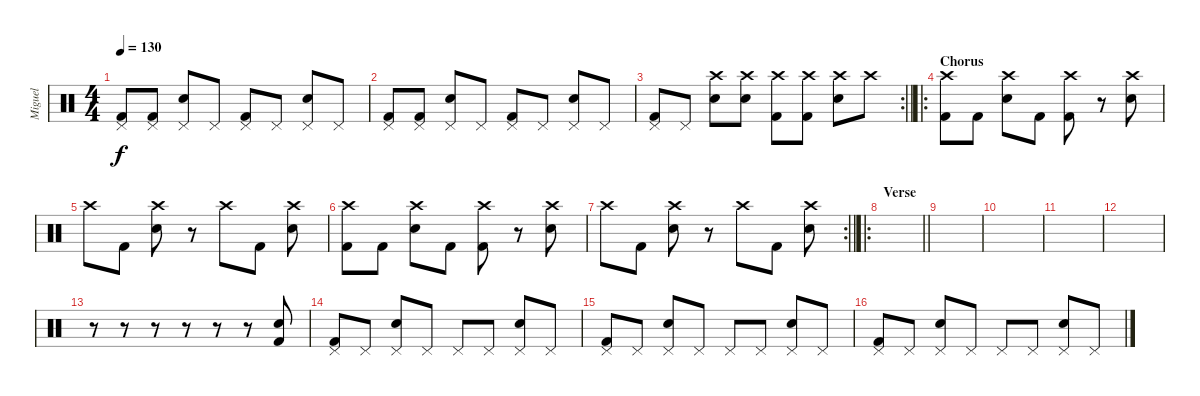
\track ("Miguel" "Miguel") {instrument percussion}
\staff {score}
\articulation defaults
\ts (4 4)
\tempo 130
\clef neutral
\ks c
("Pedal Hi-Hat (hit)" "Kick (hit) 2").8{dy f} ("Pedal Hi-Hat (hit)" "Kick (hit) 2").8 ("Pedal Hi-Hat (hit)" "Snare (hit) 2").8 "Pedal Hi-Hat (hit)".8 ("Pedal Hi-Hat (hit)" "Kick (hit) 2").8 "Pedal Hi-Hat (hit)".8 ("Pedal Hi-Hat (hit)" "Snare (hit) 2").8 "Pedal Hi-Hat (hit)".8 |
("Pedal Hi-Hat (hit)" "Kick (hit) 2").8 ("Pedal Hi-Hat (hit)" "Kick (hit) 2").8 ("Pedal Hi-Hat (hit)" "Snare (hit) 2").8 "Pedal Hi-Hat (hit)".8 ("Pedal Hi-Hat (hit)" "Kick (hit) 2").8 "Pedal Hi-Hat (hit)".8 ("Pedal Hi-Hat (hit)" "Snare (hit) 2").8 "Pedal Hi-Hat (hit)".8 |
\rc 2
\barLineRight lightlight
("Pedal Hi-Hat (hit)" "Kick (hit) 2").8 "Pedal Hi-Hat (hit)".8 ("Crash high (hit)" "Snare (hit) 2").8 ("Crash high (hit)" "Snare (hit) 2").8 ("Crash high (hit)" "Kick (hit) 2").8 ("Crash high (hit)" "Kick (hit) 2").8 ("Crash high (hit)" "Snare (hit) 2").8 "Crash high (hit)".8 |
\ro
\section ("" "Chorus")
("Crash high (hit)" "Kick (hit) 2").8 "Kick (hit) 2".8 ("Crash high (hit)" "Snare (hit) 2").8 "Kick (hit) 2".8 ("Crash high (hit)" "Kick (hit) 2").8 r.8 ("Crash high (hit)" "Snare (hit) 2").8 |
"Crash high (hit)".8 "Kick (hit) 2".8 ("Crash high (hit)" "Snare (hit) 2").8 r.8 "Crash high (hit)".8 "Kick (hit) 2".8 ("Crash high (hit)" "Snare (hit) 2").8 |
("Crash high (hit)" "Kick (hit) 2").8 "Kick (hit) 2".8 ("Crash high (hit)" "Snare (hit) 2").8 "Kick (hit) 2".8 ("Crash high (hit)" "Kick (hit) 2").8 r.8 ("Crash high (hit)" "Snare (hit) 2").8 |
\rc 2
\barLineRight lightlight "Crash high (hit)".8 "Kick (hit) 2".8
("Crash high (hit)" "Snare (hit) 2").8 r.8 "Crash high (hit)".8 "Kick (hit) 2".8 ("Crash high (hit)" "Snare (hit) 2").8 |
\ro
\section ("" "Verse")
\barLineRight lightlight
|
|
|
|
|
r.8 r.8 r.8 r.8 r.8 r.8 ("Snare (hit) 2" "Kick (hit) 2").8 |
("Pedal Hi-Hat (hit)" "Kick (hit) 2").8 "Pedal Hi-Hat (hit)".8 ("Pedal Hi-Hat (hit)" "Snare (hit) 2").8 "Pedal Hi-Hat (hit)".8 "Pedal Hi-Hat (hit)".8 "Pedal Hi-Hat (hit)".8 ("Pedal Hi-Hat (hit)" "Snare (hit) 2").8 "Pedal Hi-Hat (hit)".8 |
("Pedal Hi-Hat (hit)" "Kick (hit) 2").8 "Pedal Hi-Hat (hit)".8 ("Pedal Hi-Hat (hit)" "Snare (hit) 2").8 "Pedal Hi-Hat (hit)".8 "Pedal Hi-Hat (hit)".8 "Pedal Hi-Hat (hit)".8 ("Pedal Hi-Hat (hit)" "Snare (hit) 2").8 "Pedal Hi-Hat (hit)".8 |
("Pedal Hi-Hat (hit)" "Kick (hit) 2").8 "Pedal Hi-Hat (hit)".8 ("Pedal Hi-Hat (hit)" "Snare (hit) 2").8 "Pedal Hi-Hat (hit)".8 "Pedal Hi-Hat (hit)".8 "Pedal Hi-Hat (hit)".8 ("Pedal Hi-Hat (hit)" "Snare (hit) 2").8 "Pedal Hi-Hat (hit)".8
